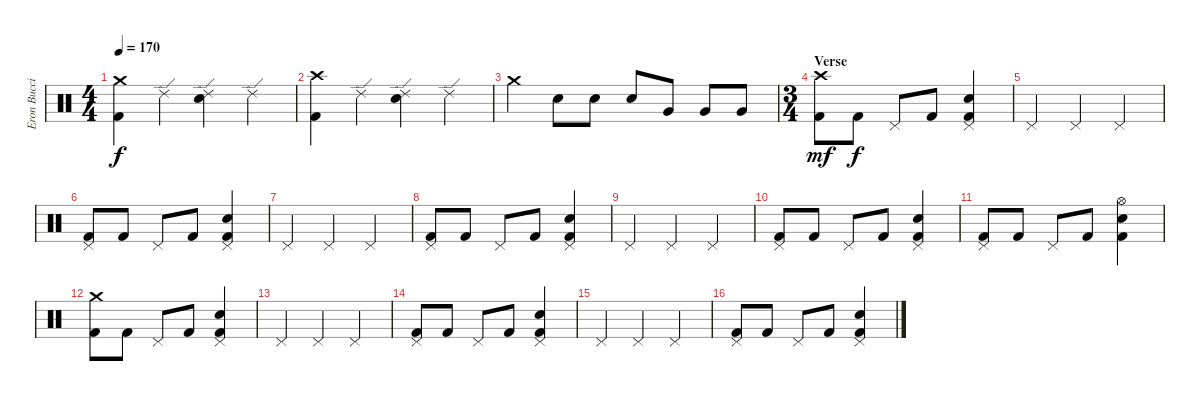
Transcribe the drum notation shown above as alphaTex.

\track ("Eron Bucciarelli (Drums)" "Eron Bucci") {instrument percussion}
\staff {score}
\articulation defaults
\ts (4 4)
\tempo 170
\clef neutral
\ks c
("Crash medium (hit)" "Kick (hit) 2").4{dy f} "Ride (edge) 2".4 ("Ride (edge) 2" "Snare (hit) 2").4 "Ride (edge) 2".4 |
("Crash high (hit)" "Kick (hit) 2").4 "Ride (edge) 2".4 ("Ride (edge) 2" "Snare (hit) 2").4 "Ride (edge) 2".4 |
"Crash medium (hit)".4 "Snare (hit) 2".8 "Snare (hit) 2".8 "Snare (hit) 2".8 "Very Low Tom (hit)".8 "Very Low Tom (hit)".8 "Very Low Tom (hit)".8 |
\ts (3 4)
\section ("" "Verse")
("Crash high (hit)" "Kick (hit) 2").8{dy mf} "Kick (hit) 2".8{dy f} "Pedal Hi-Hat (hit)".8 "Kick (hit) 2".8 ("Pedal Hi-Hat (hit)" "Snare (hit) 2" "Kick (hit) 2").4 |
"Pedal Hi-Hat (hit)".4 "Pedal Hi-Hat (hit)".4 "Pedal Hi-Hat (hit)".4 |
("Pedal Hi-Hat (hit)" "Kick (hit) 2").8 "Kick (hit) 2".8 "Pedal Hi-Hat (hit)".8 "Kick (hit) 2".8 ("Pedal Hi-Hat (hit)" "Snare (hit) 2" "Kick (hit) 2").4 |
"Pedal Hi-Hat (hit)".4 "Pedal Hi-Hat (hit)".4 "Pedal Hi-Hat (hit)".4 |
("Pedal Hi-Hat (hit)" "Kick (hit) 2").8 "Kick (hit) 2".8 "Pedal Hi-Hat (hit)".8 "Kick (hit) 2".8 ("Pedal Hi-Hat (hit)" "Snare (hit) 2" "Kick (hit) 2").4 |
"Pedal Hi-Hat (hit)".4 "Pedal Hi-Hat (hit)".4 "Pedal Hi-Hat (hit)".4 |
("Pedal Hi-Hat (hit)" "Kick (hit) 2").8 "Kick (hit) 2".8 "Pedal Hi-Hat (hit)".8 "Kick (hit) 2".8 ("Pedal Hi-Hat (hit)" "Snare (hit) 2" "Kick (hit) 2").4 |
("Pedal Hi-Hat (hit)" "Kick (hit) 2").8 "Kick (hit) 2".8 "Pedal Hi-Hat (hit)".8 "Kick (hit) 2".8 ("Hi-Hat (open)" "Snare (hit) 2" "Kick (hit) 2").4 |
("Crash medium (hit)" "Kick (hit) 2").8 "Kick (hit) 2".8 "Pedal Hi-Hat (hit)".8 "Kick (hit) 2".8 ("Pedal Hi-Hat (hit)" "Snare (hit) 2" "Kick (hit) 2").4 |
"Pedal Hi-Hat (hit)".4 "Pedal Hi-Hat (hit)".4 "Pedal Hi-Hat (hit)".4 |
("Pedal Hi-Hat (hit)" "Kick (hit) 2").8 "Kick (hit) 2".8 "Pedal Hi-Hat (hit)".8 "Kick (hit) 2".8 ("Pedal Hi-Hat (hit)" "Snare (hit) 2" "Kick (hit) 2").4 |
"Pedal Hi-Hat (hit)".4 "Pedal Hi-Hat (hit)".4 "Pedal Hi-Hat (hit)".4 |
("Pedal Hi-Hat (hit)" "Kick (hit) 2").8 "Kick (hit) 2".8 "Pedal Hi-Hat (hit)".8 "Kick (hit) 2".8 ("Pedal Hi-Hat (hit)" "Snare (hit) 2" "Kick (hit) 2").4
